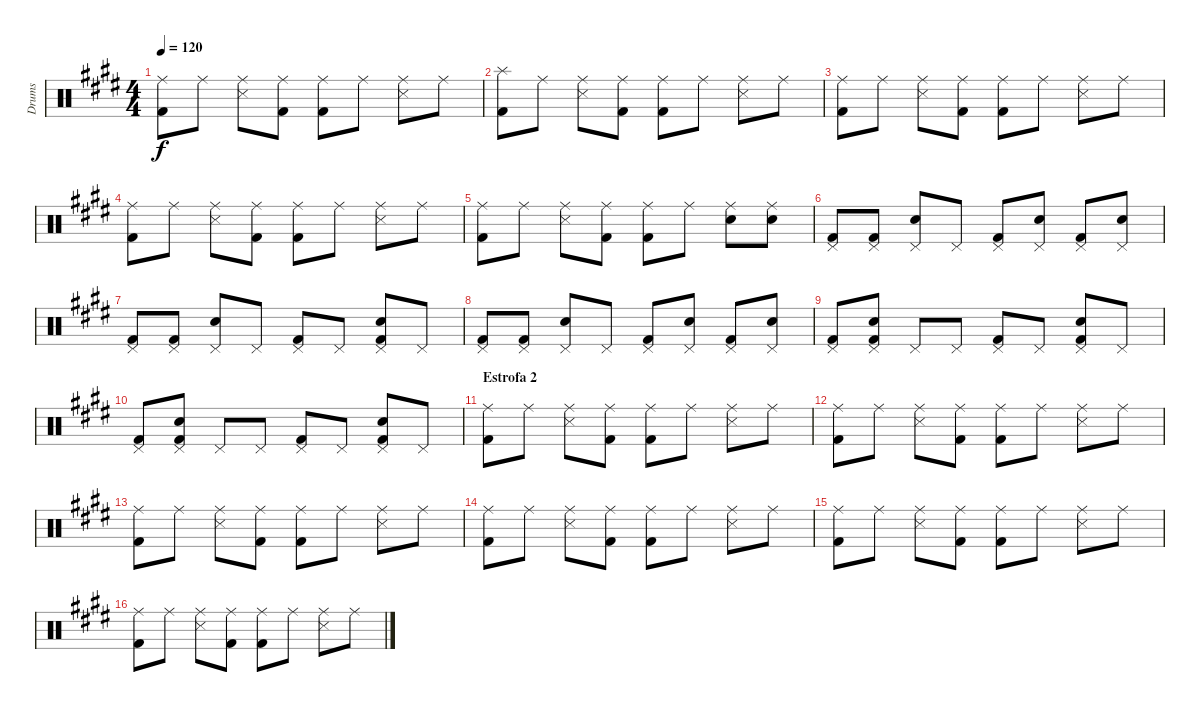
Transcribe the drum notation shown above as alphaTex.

\track ("Drums" "Drums") {instrument percussion}
\staff {score}
\articulation defaults
\ts (4 4)
\tempo 120
\clef neutral
\ks e
("Ride (middle)" "Kick (hit) 2").8{dy f} "Ride (middle)".8 ("Ride (middle)" "Snare (side stick) 3").8 ("Ride (middle)" "Kick (hit) 2").8 ("Ride (middle)" "Kick (hit) 2").8 "Ride (middle)".8 ("Ride (middle)" "Snare (side stick) 3").8 "Ride (middle)".8 |
("Splash (hit)" "Kick (hit) 2").8 "Ride (middle)".8 ("Ride (middle)" "Snare (side stick) 3").8 ("Ride (middle)" "Kick (hit) 2").8 ("Ride (middle)" "Kick (hit) 2").8 "Ride (middle)".8 ("Ride (middle)" "Snare (side stick) 3").8 "Ride (middle)".8 |
("Ride (middle)" "Kick (hit) 2").8 "Ride (middle)".8 ("Ride (middle)" "Snare (side stick) 3").8 ("Ride (middle)" "Kick (hit) 2").8 ("Ride (middle)" "Kick (hit) 2").8 "Ride (middle)".8 ("Ride (middle)" "Snare (side stick) 3").8 "Ride (middle)".8 |
("Ride (middle)" "Kick (hit) 2").8 "Ride (middle)".8 ("Ride (middle)" "Snare (side stick) 3").8 ("Ride (middle)" "Kick (hit) 2").8 ("Ride (middle)" "Kick (hit) 2").8 "Ride (middle)".8 ("Ride (middle)" "Snare (side stick) 3").8 "Ride (middle)".8 |
("Ride (middle)" "Kick (hit) 2").8 "Ride (middle)".8 ("Ride (middle)" "Snare (side stick) 3").8 ("Ride (middle)" "Kick (hit) 2").8 ("Ride (middle)" "Kick (hit) 2").8 "Ride (middle)".8 ("Ride (middle)" "Snare (hit) 2").8 ("Ride (middle)" "Snare (hit) 2").8 |
("Pedal Hi-Hat (hit)" "Kick (hit) 2").8 ("Pedal Hi-Hat (hit)" "Kick (hit) 2").8 ("Pedal Hi-Hat (hit)" "Snare (hit) 2").8 "Pedal Hi-Hat (hit)".8 ("Pedal Hi-Hat (hit)" "Kick (hit) 2").8 ("Pedal Hi-Hat (hit)" "Snare (hit) 2").8 ("Pedal Hi-Hat (hit)" "Kick (hit) 2").8 ("Pedal Hi-Hat (hit)" "Snare (hit) 2").8 |
("Pedal Hi-Hat (hit)" "Kick (hit) 2").8 ("Pedal Hi-Hat (hit)" "Kick (hit) 2").8 ("Pedal Hi-Hat (hit)" "Snare (hit) 2").8 "Pedal Hi-Hat (hit)".8 ("Pedal Hi-Hat (hit)" "Kick (hit) 2").8 "Pedal Hi-Hat (hit)".8 ("Pedal Hi-Hat (hit)" "Snare (hit) 2" "Kick (hit) 2").8 "Pedal Hi-Hat (hit)".8 |
("Pedal Hi-Hat (hit)" "Kick (hit) 2").8 ("Pedal Hi-Hat (hit)" "Kick (hit) 2").8 ("Pedal Hi-Hat (hit)" "Snare (hit) 2").8 "Pedal Hi-Hat (hit)".8 ("Pedal Hi-Hat (hit)" "Kick (hit) 2").8 ("Pedal Hi-Hat (hit)" "Snare (hit) 2").8 ("Pedal Hi-Hat (hit)" "Kick (hit) 2").8 ("Pedal Hi-Hat (hit)" "Snare (hit) 2").8 |
("Pedal Hi-Hat (hit)" "Kick (hit) 2").8 ("Pedal Hi-Hat (hit)" "Snare (hit) 2" "Kick (hit) 2").8 "Pedal Hi-Hat (hit)".8 "Pedal Hi-Hat (hit)".8 ("Pedal Hi-Hat (hit)" "Kick (hit) 2").8 "Pedal Hi-Hat (hit)".8 ("Pedal Hi-Hat (hit)" "Snare (hit) 2" "Kick (hit) 2").8 "Pedal Hi-Hat (hit)".8 |
("Pedal Hi-Hat (hit)" "Kick (hit) 2").8 ("Pedal Hi-Hat (hit)" "Snare (hit) 2" "Kick (hit) 2").8 "Pedal Hi-Hat (hit)".8 "Pedal Hi-Hat (hit)".8 ("Pedal Hi-Hat (hit)" "Kick (hit) 2").8 "Pedal Hi-Hat (hit)".8 ("Pedal Hi-Hat (hit)" "Snare (hit) 2" "Kick (hit) 2").8 "Pedal Hi-Hat (hit)".8 |
\section ("" "Estrofa 2")
("Ride (middle)" "Kick (hit) 2").8 "Ride (middle)".8 ("Ride (middle)" "Snare (side stick) 3").8 ("Ride (middle)" "Kick (hit) 2").8 ("Ride (middle)" "Kick (hit) 2").8 "Ride (middle)".8 ("Ride (middle)" "Snare (side stick) 3").8 "Ride (middle)".8 |
("Ride (middle)" "Kick (hit) 2").8 "Ride (middle)".8 ("Ride (middle)" "Snare (side stick) 3").8 ("Ride (middle)" "Kick (hit) 2").8 ("Ride (middle)" "Kick (hit) 2").8 "Ride (middle)".8 ("Ride (middle)" "Snare (side stick) 3").8 "Ride (middle)".8 |
("Ride (middle)" "Kick (hit) 2").8 "Ride (middle)".8 ("Ride (middle)" "Snare (side stick) 3").8 ("Ride (middle)" "Kick (hit) 2").8 ("Ride (middle)" "Kick (hit) 2").8 "Ride (middle)".8 ("Ride (middle)" "Snare (side stick) 3").8 "Ride (middle)".8 |
("Ride (middle)" "Kick (hit) 2").8 "Ride (middle)".8 ("Ride (middle)" "Snare (side stick) 3").8 ("Ride (middle)" "Kick (hit) 2").8 ("Ride (middle)" "Kick (hit) 2").8 "Ride (middle)".8 ("Ride (middle)" "Snare (side stick) 3").8 "Ride (middle)".8 |
("Ride (middle)" "Kick (hit) 2").8 "Ride (middle)".8 ("Ride (middle)" "Snare (side stick) 3").8 ("Ride (middle)" "Kick (hit) 2").8 ("Ride (middle)" "Kick (hit) 2").8 "Ride (middle)".8 ("Ride (middle)" "Snare (side stick) 3").8 "Ride (middle)".8 |
("Ride (middle)" "Kick (hit) 2").8 "Ride (middle)".8 ("Ride (middle)" "Snare (side stick) 3").8 ("Ride (middle)" "Kick (hit) 2").8 ("Ride (middle)" "Kick (hit) 2").8 "Ride (middle)".8 ("Ride (middle)" "Snare (side stick) 3").8 "Ride (middle)".8
